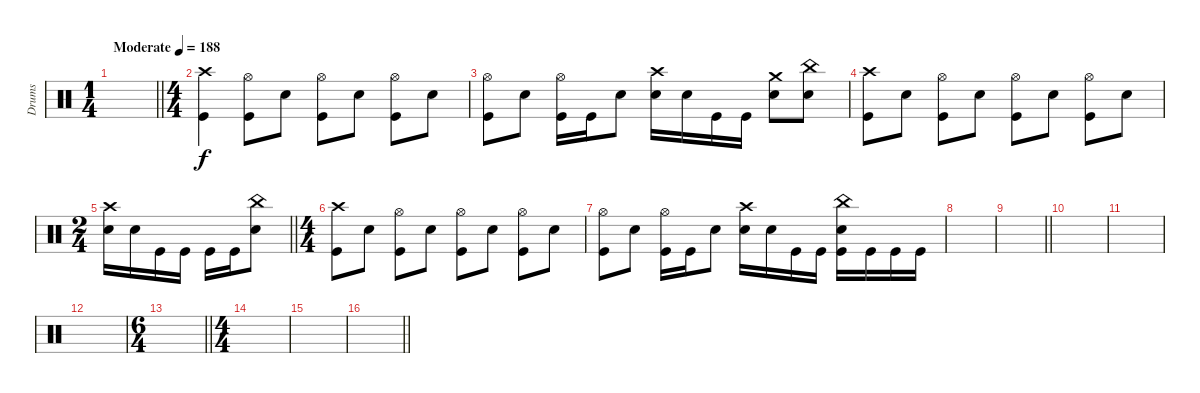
\track ("Drums" "Drums") {instrument percussion}
\staff
\articulation defaults
\ts (1 4)
\tempo (188 "Moderate")
\clef neutral
\barLineRight lightlight
\ks c
|
\ts (4 4)
("Crash high (hit)" "Kick (hit)").4 ("Hi-Hat (open)" "Kick (hit)").8 "Electric Snare (hit)".8 ("Hi-Hat (open)" "Kick (hit)").8 "Electric Snare (hit)".8 ("Hi-Hat (open)" "Kick (hit)").8 "Electric Snare (hit)".8 |
("Hi-Hat (open)" "Kick (hit)").8 "Electric Snare (hit)".8 ("Hi-Hat (open)" "Kick (hit)").16 "Kick (hit)".16 "Electric Snare (hit)".8 ("Crash high (hit)" "Electric Snare (hit)").16 "Electric Snare (hit)".16 "Kick (hit)".16 "Kick (hit)".16 ("Crash medium (hit)" "Electric Snare (hit)").8 ("China (hit)" "Electric Snare (hit)").8 |
("Crash high (hit)" "Kick (hit)").8 "Electric Snare (hit)".8 ("Hi-Hat (open)" "Kick (hit)").8 "Electric Snare (hit)".8 ("Hi-Hat (open)" "Kick (hit)").8 "Electric Snare (hit)".8 ("Hi-Hat (open)" "Kick (hit)").8 "Electric Snare (hit)".8 |
\ts (2 4)
\barLineRight lightlight
("Crash high (hit)" "Electric Snare (hit)").16 "Electric Snare (hit)".16 "Kick (hit)".16 "Kick (hit)".16 "Kick (hit)".16 "Kick (hit)".16 ("China (hit)" "Electric Snare (hit)").8 |
\ts (4 4)
("Crash high (hit)" "Kick (hit)").8 "Electric Snare (hit)".8 ("Hi-Hat (open)" "Kick (hit)").8 "Electric Snare (hit)".8 ("Hi-Hat (open)" "Kick (hit)").8 "Electric Snare (hit)".8 ("Hi-Hat (open)" "Kick (hit)").8 "Electric Snare (hit)".8 |
("Hi-Hat (open)" "Kick (hit)").8 "Electric Snare (hit)".8 ("Hi-Hat (open)" "Kick (hit)").16 "Kick (hit)".16 "Electric Snare (hit)".8 ("Crash high (hit)" "Electric Snare (hit)").16 "Electric Snare (hit)".16 "Kick (hit)".16 "Kick (hit)".16 ("China (hit)" "Electric Snare (hit)" "Kick (hit)").16 "Kick (hit)".16 "Kick (hit)".16 "Kick (hit)".16 |
|
\barLineRight lightlight
|
|
|
|
\ts (6 4)
\barLineRight lightlight
|
\ts (4 4)
|
|
\barLineRight lightlight
